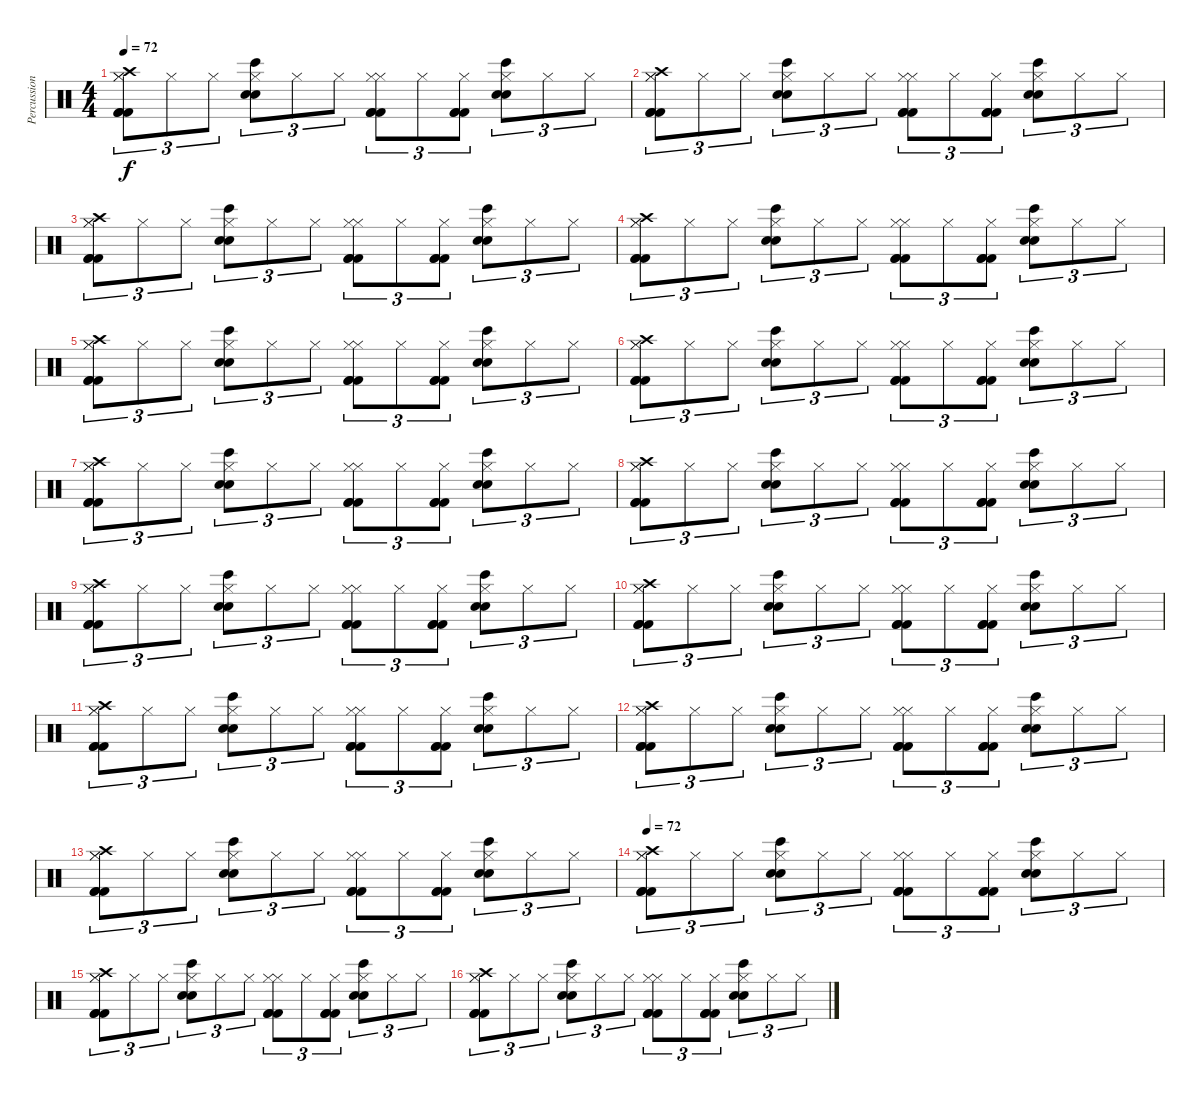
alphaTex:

\track ("Percussions" "Percussion") {instrument percussion}
\staff {score}
\articulation defaults
\ts (4 4)
\tempo 72
\clef neutral
\ks c
("Hi-Hat (closed)" "Hi-Hat (closed)" "Kick (hit) 2" "Kick (hit) 2" "Kick (hit) 2" "Crash high (hit)").8{tu (3 2) dy f} "Hi-Hat (closed)".8{tu (3 2)} "Hi-Hat (closed)".8{tu (3 2)} ("Hi-Hat (closed)" "Bongo High (hit)" "Snare (hit) 2" "Snare (hit) 2").8{tu (3 2)} "Hi-Hat (closed)".8{tu (3 2)} "Hi-Hat (closed)".8{tu (3 2)} ("Hi-Hat (closed)" "Hi-Hat (closed)" "Kick (hit) 2" "Kick (hit) 2" "Kick (hit) 2").8{tu (3 2)} "Hi-Hat (closed)".8{tu (3 2)} ("Hi-Hat (closed)" "Kick (hit) 2" "Kick (hit) 2" "Kick (hit) 2").8{tu (3 2)} ("Hi-Hat (closed)" "Bongo High (hit)" "Snare (hit) 2" "Snare (hit) 2").8{tu (3 2)} "Hi-Hat (closed)".8{tu (3 2)} "Hi-Hat (closed)".8{tu (3 2)} |
("Hi-Hat (closed)" "Hi-Hat (closed)" "Kick (hit) 2" "Kick (hit) 2" "Kick (hit) 2" "Crash high (hit)").8{tu (3 2)} "Hi-Hat (closed)".8{tu (3 2)} "Hi-Hat (closed)".8{tu (3 2)} ("Hi-Hat (closed)" "Bongo High (hit)" "Snare (hit) 2" "Snare (hit) 2").8{tu (3 2)} "Hi-Hat (closed)".8{tu (3 2)} "Hi-Hat (closed)".8{tu (3 2)} ("Hi-Hat (closed)" "Hi-Hat (closed)" "Kick (hit) 2" "Kick (hit) 2" "Kick (hit) 2").8{tu (3 2)} "Hi-Hat (closed)".8{tu (3 2)} ("Hi-Hat (closed)" "Kick (hit) 2" "Kick (hit) 2" "Kick (hit) 2").8{tu (3 2)} ("Hi-Hat (closed)" "Bongo High (hit)" "Snare (hit) 2" "Snare (hit) 2").8{tu (3 2)} "Hi-Hat (closed)".8{tu (3 2)} "Hi-Hat (closed)".8{tu (3 2)} |
("Hi-Hat (closed)" "Hi-Hat (closed)" "Kick (hit) 2" "Kick (hit) 2" "Kick (hit) 2" "Crash high (hit)").8{tu (3 2)} "Hi-Hat (closed)".8{tu (3 2)} "Hi-Hat (closed)".8{tu (3 2)} ("Hi-Hat (closed)" "Bongo High (hit)" "Snare (hit) 2" "Snare (hit) 2").8{tu (3 2)} "Hi-Hat (closed)".8{tu (3 2)} "Hi-Hat (closed)".8{tu (3 2)} ("Hi-Hat (closed)" "Hi-Hat (closed)" "Kick (hit) 2" "Kick (hit) 2" "Kick (hit) 2").8{tu (3 2)} "Hi-Hat (closed)".8{tu (3 2)} ("Hi-Hat (closed)" "Kick (hit) 2" "Kick (hit) 2" "Kick (hit) 2").8{tu (3 2)} ("Hi-Hat (closed)" "Bongo High (hit)" "Snare (hit) 2" "Snare (hit) 2").8{tu (3 2)} "Hi-Hat (closed)".8{tu (3 2)} "Hi-Hat (closed)".8{tu (3 2)} |
("Hi-Hat (closed)" "Hi-Hat (closed)" "Kick (hit) 2" "Kick (hit) 2" "Kick (hit) 2" "Crash high (hit)").8{tu (3 2)} "Hi-Hat (closed)".8{tu (3 2)} "Hi-Hat (closed)".8{tu (3 2)} ("Hi-Hat (closed)" "Bongo High (hit)" "Snare (hit) 2" "Snare (hit) 2").8{tu (3 2)} "Hi-Hat (closed)".8{tu (3 2)} "Hi-Hat (closed)".8{tu (3 2)} ("Hi-Hat (closed)" "Hi-Hat (closed)" "Kick (hit) 2" "Kick (hit) 2" "Kick (hit) 2").8{tu (3 2)} "Hi-Hat (closed)".8{tu (3 2)} ("Hi-Hat (closed)" "Kick (hit) 2" "Kick (hit) 2" "Kick (hit) 2").8{tu (3 2)} ("Hi-Hat (closed)" "Bongo High (hit)" "Snare (hit) 2" "Snare (hit) 2").8{tu (3 2)} "Hi-Hat (closed)".8{tu (3 2)} "Hi-Hat (closed)".8{tu (3 2)} |
("Hi-Hat (closed)" "Hi-Hat (closed)" "Kick (hit) 2" "Kick (hit) 2" "Kick (hit) 2" "Crash high (hit)").8{tu (3 2)} "Hi-Hat (closed)".8{tu (3 2)} "Hi-Hat (closed)".8{tu (3 2)} ("Hi-Hat (closed)" "Bongo High (hit)" "Snare (hit) 2" "Snare (hit) 2").8{tu (3 2)} "Hi-Hat (closed)".8{tu (3 2)} "Hi-Hat (closed)".8{tu (3 2)} ("Hi-Hat (closed)" "Hi-Hat (closed)" "Kick (hit) 2" "Kick (hit) 2" "Kick (hit) 2").8{tu (3 2)} "Hi-Hat (closed)".8{tu (3 2)} ("Hi-Hat (closed)" "Kick (hit) 2" "Kick (hit) 2" "Kick (hit) 2").8{tu (3 2)} ("Hi-Hat (closed)" "Bongo High (hit)" "Snare (hit) 2" "Snare (hit) 2").8{tu (3 2)} "Hi-Hat (closed)".8{tu (3 2)} "Hi-Hat (closed)".8{tu (3 2)} |
("Hi-Hat (closed)" "Hi-Hat (closed)" "Kick (hit) 2" "Kick (hit) 2" "Kick (hit) 2" "Crash high (hit)").8{tu (3 2)} "Hi-Hat (closed)".8{tu (3 2)} "Hi-Hat (closed)".8{tu (3 2)} ("Hi-Hat (closed)" "Bongo High (hit)" "Snare (hit) 2" "Snare (hit) 2").8{tu (3 2)} "Hi-Hat (closed)".8{tu (3 2)} "Hi-Hat (closed)".8{tu (3 2)} ("Hi-Hat (closed)" "Hi-Hat (closed)" "Kick (hit) 2" "Kick (hit) 2" "Kick (hit) 2").8{tu (3 2)} "Hi-Hat (closed)".8{tu (3 2)} ("Hi-Hat (closed)" "Kick (hit) 2" "Kick (hit) 2" "Kick (hit) 2").8{tu (3 2)} ("Hi-Hat (closed)" "Bongo High (hit)" "Snare (hit) 2" "Snare (hit) 2").8{tu (3 2)} "Hi-Hat (closed)".8{tu (3 2)} "Hi-Hat (closed)".8{tu (3 2)} |
("Hi-Hat (closed)" "Hi-Hat (closed)" "Kick (hit) 2" "Kick (hit) 2" "Kick (hit) 2" "Crash high (hit)").8{tu (3 2)} "Hi-Hat (closed)".8{tu (3 2)} "Hi-Hat (closed)".8{tu (3 2)} ("Hi-Hat (closed)" "Bongo High (hit)" "Snare (hit) 2" "Snare (hit) 2").8{tu (3 2)} "Hi-Hat (closed)".8{tu (3 2)} "Hi-Hat (closed)".8{tu (3 2)} ("Hi-Hat (closed)" "Hi-Hat (closed)" "Kick (hit) 2" "Kick (hit) 2" "Kick (hit) 2").8{tu (3 2)} "Hi-Hat (closed)".8{tu (3 2)} ("Hi-Hat (closed)" "Kick (hit) 2" "Kick (hit) 2" "Kick (hit) 2").8{tu (3 2)} ("Hi-Hat (closed)" "Bongo High (hit)" "Snare (hit) 2" "Snare (hit) 2").8{tu (3 2)} "Hi-Hat (closed)".8{tu (3 2)} "Hi-Hat (closed)".8{tu (3 2)} |
("Hi-Hat (closed)" "Hi-Hat (closed)" "Kick (hit) 2" "Kick (hit) 2" "Kick (hit) 2" "Crash high (hit)").8{tu (3 2)} "Hi-Hat (closed)".8{tu (3 2)} "Hi-Hat (closed)".8{tu (3 2)} ("Hi-Hat (closed)" "Bongo High (hit)" "Snare (hit) 2" "Snare (hit) 2").8{tu (3 2)} "Hi-Hat (closed)".8{tu (3 2)} "Hi-Hat (closed)".8{tu (3 2)} ("Hi-Hat (closed)" "Hi-Hat (closed)" "Kick (hit) 2" "Kick (hit) 2" "Kick (hit) 2").8{tu (3 2)} "Hi-Hat (closed)".8{tu (3 2)} ("Hi-Hat (closed)" "Kick (hit) 2" "Kick (hit) 2" "Kick (hit) 2").8{tu (3 2)} ("Hi-Hat (closed)" "Bongo High (hit)" "Snare (hit) 2" "Snare (hit) 2").8{tu (3 2)} "Hi-Hat (closed)".8{tu (3 2)} "Hi-Hat (closed)".8{tu (3 2)} |
("Hi-Hat (closed)" "Hi-Hat (closed)" "Kick (hit) 2" "Kick (hit) 2" "Kick (hit) 2" "Crash high (hit)").8{tu (3 2)} "Hi-Hat (closed)".8{tu (3 2)} "Hi-Hat (closed)".8{tu (3 2)} ("Hi-Hat (closed)" "Bongo High (hit)" "Snare (hit) 2" "Snare (hit) 2").8{tu (3 2)} "Hi-Hat (closed)".8{tu (3 2)} "Hi-Hat (closed)".8{tu (3 2)} ("Hi-Hat (closed)" "Hi-Hat (closed)" "Kick (hit) 2" "Kick (hit) 2" "Kick (hit) 2").8{tu (3 2)} "Hi-Hat (closed)".8{tu (3 2)} ("Hi-Hat (closed)" "Kick (hit) 2" "Kick (hit) 2" "Kick (hit) 2").8{tu (3 2)} ("Hi-Hat (closed)" "Bongo High (hit)" "Snare (hit) 2" "Snare (hit) 2").8{tu (3 2)} "Hi-Hat (closed)".8{tu (3 2)} "Hi-Hat (closed)".8{tu (3 2)} |
("Hi-Hat (closed)" "Hi-Hat (closed)" "Kick (hit) 2" "Kick (hit) 2" "Kick (hit) 2" "Crash high (hit)").8{tu (3 2)} "Hi-Hat (closed)".8{tu (3 2)} "Hi-Hat (closed)".8{tu (3 2)} ("Hi-Hat (closed)" "Bongo High (hit)" "Snare (hit) 2" "Snare (hit) 2").8{tu (3 2)} "Hi-Hat (closed)".8{tu (3 2)} "Hi-Hat (closed)".8{tu (3 2)} ("Hi-Hat (closed)" "Hi-Hat (closed)" "Kick (hit) 2" "Kick (hit) 2" "Kick (hit) 2").8{tu (3 2)} "Hi-Hat (closed)".8{tu (3 2)} ("Hi-Hat (closed)" "Kick (hit) 2" "Kick (hit) 2" "Kick (hit) 2").8{tu (3 2)} ("Hi-Hat (closed)" "Bongo High (hit)" "Snare (hit) 2" "Snare (hit) 2").8{tu (3 2)} "Hi-Hat (closed)".8{tu (3 2)} "Hi-Hat (closed)".8{tu (3 2)} |
("Hi-Hat (closed)" "Hi-Hat (closed)" "Kick (hit) 2" "Kick (hit) 2" "Kick (hit) 2" "Crash high (hit)").8{tu (3 2)} "Hi-Hat (closed)".8{tu (3 2)} "Hi-Hat (closed)".8{tu (3 2)} ("Hi-Hat (closed)" "Bongo High (hit)" "Snare (hit) 2" "Snare (hit) 2").8{tu (3 2)} "Hi-Hat (closed)".8{tu (3 2)} "Hi-Hat (closed)".8{tu (3 2)} ("Hi-Hat (closed)" "Hi-Hat (closed)" "Kick (hit) 2" "Kick (hit) 2" "Kick (hit) 2").8{tu (3 2)} "Hi-Hat (closed)".8{tu (3 2)} ("Hi-Hat (closed)" "Kick (hit) 2" "Kick (hit) 2" "Kick (hit) 2").8{tu (3 2)} ("Hi-Hat (closed)" "Bongo High (hit)" "Snare (hit) 2" "Snare (hit) 2").8{tu (3 2)} "Hi-Hat (closed)".8{tu (3 2)} "Hi-Hat (closed)".8{tu (3 2)} |
("Hi-Hat (closed)" "Hi-Hat (closed)" "Kick (hit) 2" "Kick (hit) 2" "Kick (hit) 2" "Crash high (hit)").8{tu (3 2)} "Hi-Hat (closed)".8{tu (3 2)} "Hi-Hat (closed)".8{tu (3 2)} ("Hi-Hat (closed)" "Bongo High (hit)" "Snare (hit) 2" "Snare (hit) 2").8{tu (3 2)} "Hi-Hat (closed)".8{tu (3 2)} "Hi-Hat (closed)".8{tu (3 2)} ("Hi-Hat (closed)" "Hi-Hat (closed)" "Kick (hit) 2" "Kick (hit) 2" "Kick (hit) 2").8{tu (3 2)} "Hi-Hat (closed)".8{tu (3 2)} ("Hi-Hat (closed)" "Kick (hit) 2" "Kick (hit) 2" "Kick (hit) 2").8{tu (3 2)} ("Hi-Hat (closed)" "Bongo High (hit)" "Snare (hit) 2" "Snare (hit) 2").8{tu (3 2)} "Hi-Hat (closed)".8{tu (3 2)} "Hi-Hat (closed)".8{tu (3 2)} |
("Hi-Hat (closed)" "Hi-Hat (closed)" "Kick (hit) 2" "Kick (hit) 2" "Kick (hit) 2" "Crash high (hit)").8{tu (3 2)} "Hi-Hat (closed)".8{tu (3 2)} "Hi-Hat (closed)".8{tu (3 2)} ("Hi-Hat (closed)" "Bongo High (hit)" "Snare (hit) 2" "Snare (hit) 2").8{tu (3 2)} "Hi-Hat (closed)".8{tu (3 2)} "Hi-Hat (closed)".8{tu (3 2)} ("Hi-Hat (closed)" "Hi-Hat (closed)" "Kick (hit) 2" "Kick (hit) 2" "Kick (hit) 2").8{tu (3 2)} "Hi-Hat (closed)".8{tu (3 2)} ("Hi-Hat (closed)" "Kick (hit) 2" "Kick (hit) 2" "Kick (hit) 2").8{tu (3 2)} ("Hi-Hat (closed)" "Bongo High (hit)" "Snare (hit) 2" "Snare (hit) 2").8{tu (3 2)} "Hi-Hat (closed)".8{tu (3 2)} "Hi-Hat (closed)".8{tu (3 2)} |
\tempo 72
("Hi-Hat (closed)" "Hi-Hat (closed)" "Kick (hit) 2" "Kick (hit) 2" "Kick (hit) 2" "Crash high (hit)").8{tu (3 2)} "Hi-Hat (closed)".8{tu (3 2)} "Hi-Hat (closed)".8{tu (3 2)} ("Hi-Hat (closed)" "Bongo High (hit)" "Snare (hit) 2" "Snare (hit) 2").8{tu (3 2)} "Hi-Hat (closed)".8{tu (3 2)} "Hi-Hat (closed)".8{tu (3 2)} ("Hi-Hat (closed)" "Hi-Hat (closed)" "Kick (hit) 2" "Kick (hit) 2" "Kick (hit) 2").8{tu (3 2)} "Hi-Hat (closed)".8{tu (3 2)} ("Hi-Hat (closed)" "Kick (hit) 2" "Kick (hit) 2" "Kick (hit) 2").8{tu (3 2)} ("Hi-Hat (closed)" "Bongo High (hit)" "Snare (hit) 2" "Snare (hit) 2").8{tu (3 2)} "Hi-Hat (closed)".8{tu (3 2)} "Hi-Hat (closed)".8{tu (3 2)} |
("Hi-Hat (closed)" "Hi-Hat (closed)" "Kick (hit) 2" "Kick (hit) 2" "Kick (hit) 2" "Crash high (hit)").8{tu (3 2)} "Hi-Hat (closed)".8{tu (3 2)} "Hi-Hat (closed)".8{tu (3 2)} ("Hi-Hat (closed)" "Bongo High (hit)" "Snare (hit) 2" "Snare (hit) 2").8{tu (3 2)} "Hi-Hat (closed)".8{tu (3 2)} "Hi-Hat (closed)".8{tu (3 2)} ("Hi-Hat (closed)" "Hi-Hat (closed)" "Kick (hit) 2" "Kick (hit) 2" "Kick (hit) 2").8{tu (3 2)} "Hi-Hat (closed)".8{tu (3 2)} ("Hi-Hat (closed)" "Kick (hit) 2" "Kick (hit) 2" "Kick (hit) 2").8{tu (3 2)} ("Hi-Hat (closed)" "Bongo High (hit)" "Snare (hit) 2" "Snare (hit) 2").8{tu (3 2)} "Hi-Hat (closed)".8{tu (3 2)} "Hi-Hat (closed)".8{tu (3 2)} |
("Hi-Hat (closed)" "Hi-Hat (closed)" "Kick (hit) 2" "Kick (hit) 2" "Kick (hit) 2" "Crash high (hit)").8{tu (3 2)} "Hi-Hat (closed)".8{tu (3 2)} "Hi-Hat (closed)".8{tu (3 2)} ("Hi-Hat (closed)" "Bongo High (hit)" "Snare (hit) 2" "Snare (hit) 2").8{tu (3 2)} "Hi-Hat (closed)".8{tu (3 2)} "Hi-Hat (closed)".8{tu (3 2)} ("Hi-Hat (closed)" "Hi-Hat (closed)" "Kick (hit) 2" "Kick (hit) 2" "Kick (hit) 2").8{tu (3 2)} "Hi-Hat (closed)".8{tu (3 2)} ("Hi-Hat (closed)" "Kick (hit) 2" "Kick (hit) 2" "Kick (hit) 2").8{tu (3 2)} ("Hi-Hat (closed)" "Bongo High (hit)" "Snare (hit) 2" "Snare (hit) 2").8{tu (3 2)} "Hi-Hat (closed)".8{tu (3 2)} "Hi-Hat (closed)".8{tu (3 2)}
